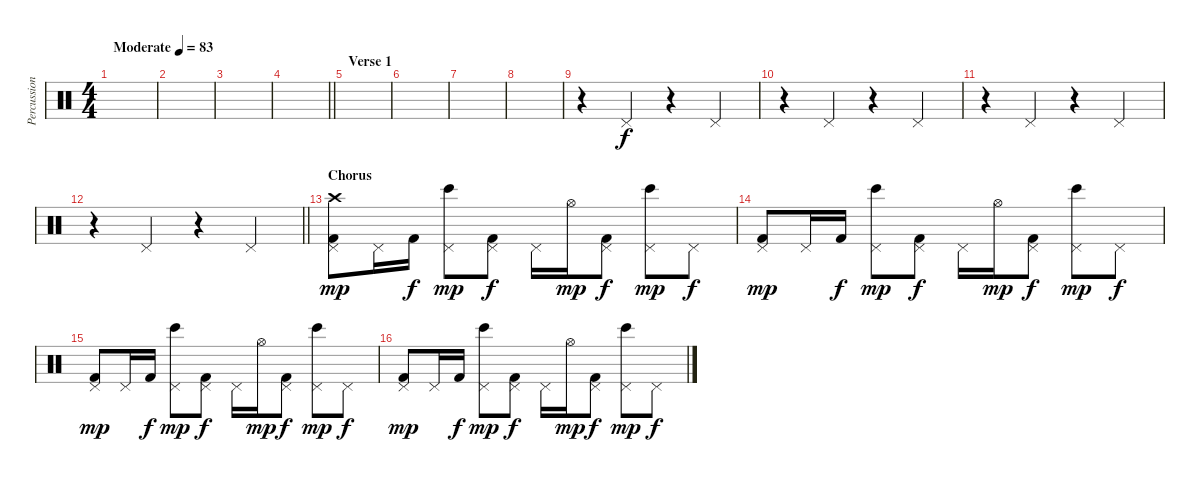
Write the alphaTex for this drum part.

\track ("Percussion" "Percussion") {instrument percussion}
\staff {score}
\articulation defaults
\ts (4 4)
\tempo (83 "Moderate")
\clef neutral
\ks c
|
|
|
\barLineRight lightlight
|
\section ("" "Verse 1")
|
|
|
|
r.4 "Pedal Hi-Hat (hit)".4 r.4 "Pedal Hi-Hat (hit)".4 |
r.4 "Pedal Hi-Hat (hit)".4 r.4 "Pedal Hi-Hat (hit)".4 |
r.4 "Pedal Hi-Hat (hit)".4 r.4 "Pedal Hi-Hat (hit)".4 |
\barLineRight lightlight
r.4 "Pedal Hi-Hat (hit)".4 r.4 "Pedal Hi-Hat (hit)".4 |
\section ("" "Chorus")
("Pedal Hi-Hat (hit)" "Kick (hit) 2" "Crash high (hit)").8{dy mp} "Pedal Hi-Hat (hit)".16 "Kick (hit) 2".16{dy f} ("Pedal Hi-Hat (hit)" "Bongo High (hit)").8{dy mp} ("Pedal Hi-Hat (hit)" "Kick (hit) 2").8{dy f} "Pedal Hi-Hat (hit)".16 "Hi-Hat (open)".16{dy mp} ("Pedal Hi-Hat (hit)" "Kick (hit) 2").8{dy f} ("Pedal Hi-Hat (hit)" "Bongo High (hit)").8{dy mp} "Pedal Hi-Hat (hit)".8{dy f} |
("Pedal Hi-Hat (hit)" "Kick (hit) 2").8{dy mp} "Pedal Hi-Hat (hit)".16 "Kick (hit) 2".16{dy f} ("Pedal Hi-Hat (hit)" "Bongo High (hit)").8{dy mp} ("Pedal Hi-Hat (hit)" "Kick (hit) 2").8{dy f} "Pedal Hi-Hat (hit)".16 "Hi-Hat (open)".16{dy mp} ("Pedal Hi-Hat (hit)" "Kick (hit) 2").8{dy f} ("Pedal Hi-Hat (hit)" "Bongo High (hit)").8{dy mp} "Pedal Hi-Hat (hit)".8{dy f} |
("Pedal Hi-Hat (hit)" "Kick (hit) 2").8{dy mp} "Pedal Hi-Hat (hit)".16 "Kick (hit) 2".16{dy f} ("Pedal Hi-Hat (hit)" "Bongo High (hit)").8{dy mp} ("Pedal Hi-Hat (hit)" "Kick (hit) 2").8{dy f} "Pedal Hi-Hat (hit)".16 "Hi-Hat (open)".16{dy mp} ("Pedal Hi-Hat (hit)" "Kick (hit) 2").8{dy f} ("Pedal Hi-Hat (hit)" "Bongo High (hit)").8{dy mp} "Pedal Hi-Hat (hit)".8{dy f} |
("Pedal Hi-Hat (hit)" "Kick (hit) 2").8{dy mp} "Pedal Hi-Hat (hit)".16 "Kick (hit) 2".16{dy f} ("Pedal Hi-Hat (hit)" "Bongo High (hit)").8{dy mp} ("Pedal Hi-Hat (hit)" "Kick (hit) 2").8{dy f} "Pedal Hi-Hat (hit)".16 "Hi-Hat (open)".16{dy mp} ("Pedal Hi-Hat (hit)" "Kick (hit) 2").8{dy f} ("Pedal Hi-Hat (hit)" "Bongo High (hit)").8{dy mp} "Pedal Hi-Hat (hit)".8{dy f}
